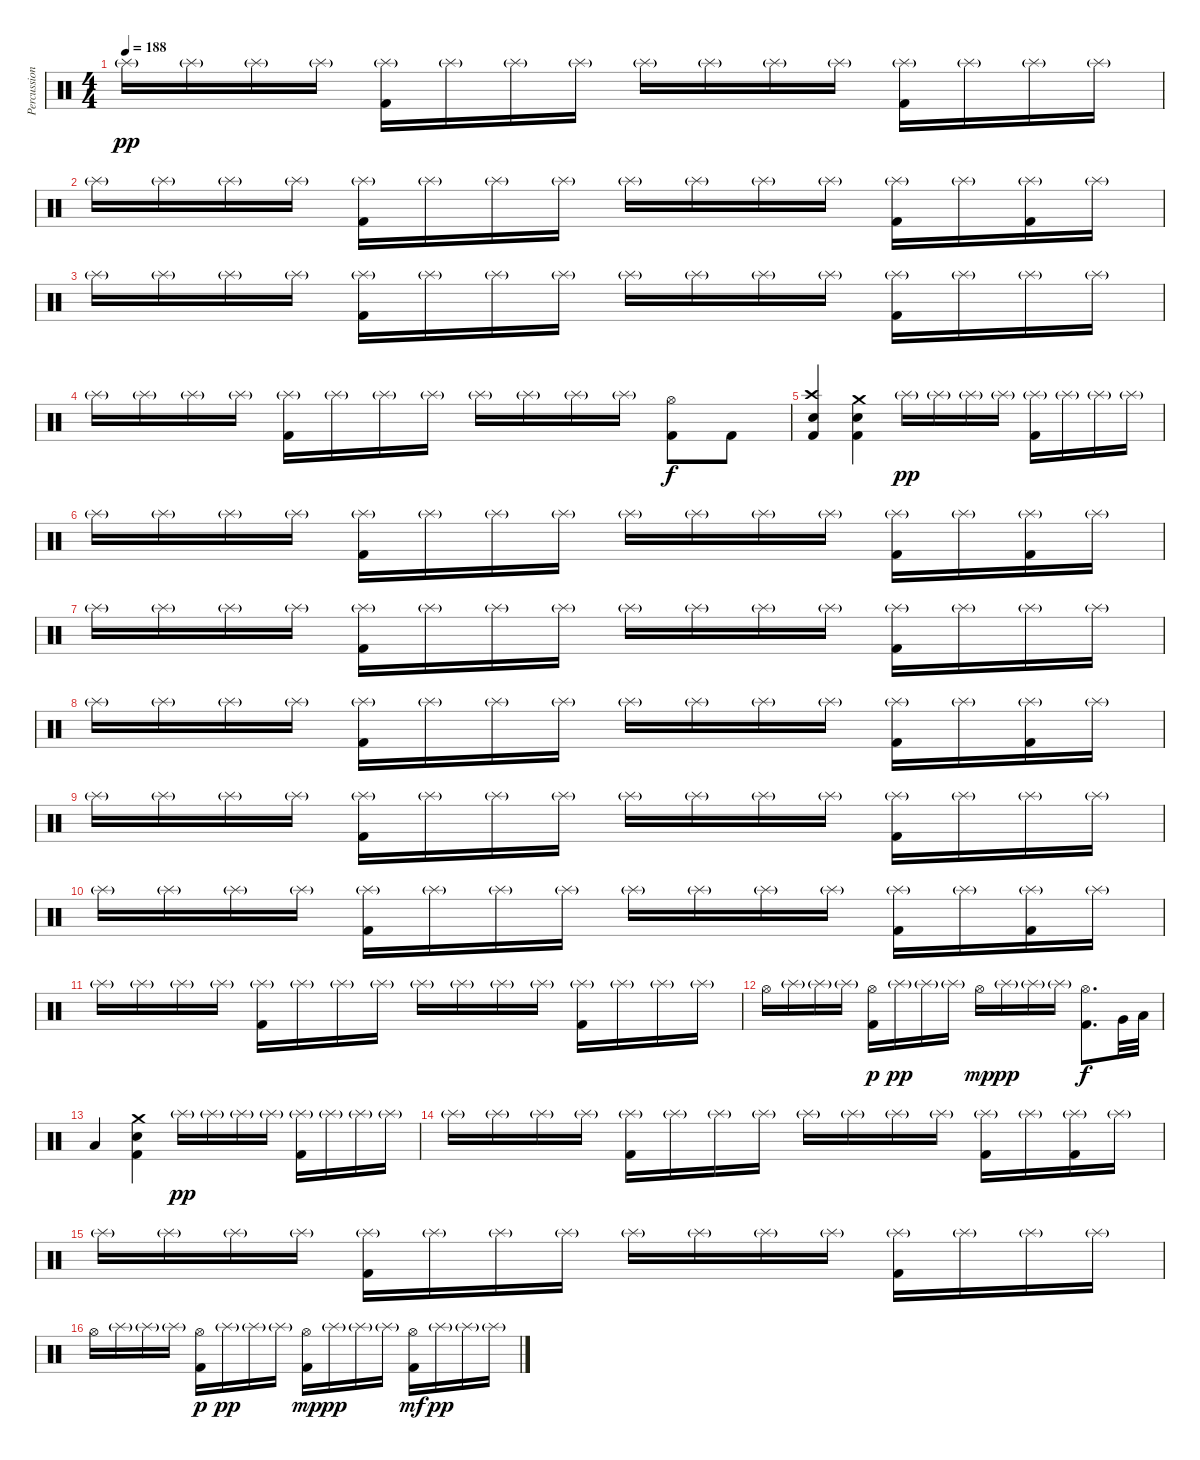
\track ("Percussion" "Percussion") {instrument percussion}
\staff {score}
\articulation defaults
\ts (4 4)
\tempo 188
\clef neutral
\ks c "Splash (hit)"{g}.16{dy pp} "Splash (hit)"{g}.16 "Splash (hit)"{g}.16 "Splash (hit)"{g}.16
("Splash (hit)"{g} "Kick (hit) 2").16 "Splash (hit)"{g}.16 "Splash (hit)"{g}.16 "Splash (hit)"{g}.16 "Splash (hit)"{g}.16 "Splash (hit)"{g}.16 "Splash (hit)"{g}.16 "Splash (hit)"{g}.16 ("Splash (hit)"{g} "Kick (hit) 2").16 "Splash (hit)"{g}.16 "Splash (hit)"{g}.16 "Splash (hit)"{g}.16 |
"Splash (hit)"{g}.16 "Splash (hit)"{g}.16 "Splash (hit)"{g}.16 "Splash (hit)"{g}.16 ("Splash (hit)"{g} "Kick (hit) 2").16 "Splash (hit)"{g}.16 "Splash (hit)"{g}.16 "Splash (hit)"{g}.16 "Splash (hit)"{g}.16 "Splash (hit)"{g}.16 "Splash (hit)"{g}.16 "Splash (hit)"{g}.16 ("Splash (hit)"{g} "Kick (hit) 2").16 "Splash (hit)"{g}.16 ("Splash (hit)"{g} "Kick (hit) 2").16 "Splash (hit)"{g}.16 |
"Splash (hit)"{g}.16 "Splash (hit)"{g}.16 "Splash (hit)"{g}.16 "Splash (hit)"{g}.16 ("Splash (hit)"{g} "Kick (hit) 2").16 "Splash (hit)"{g}.16 "Splash (hit)"{g}.16 "Splash (hit)"{g}.16 "Splash (hit)"{g}.16 "Splash (hit)"{g}.16 "Splash (hit)"{g}.16 "Splash (hit)"{g}.16 ("Splash (hit)"{g} "Kick (hit) 2").16 "Splash (hit)"{g}.16 "Splash (hit)"{g}.16 "Splash (hit)"{g}.16 |
"Splash (hit)"{g}.16 "Splash (hit)"{g}.16 "Splash (hit)"{g}.16 "Splash (hit)"{g}.16 ("Splash (hit)"{g} "Kick (hit) 2").16 "Splash (hit)"{g}.16 "Splash (hit)"{g}.16 "Splash (hit)"{g}.16 "Splash (hit)"{g}.16 "Splash (hit)"{g}.16 "Splash (hit)"{g}.16 "Splash (hit)"{g}.16 ("Hi-Hat (open)" "Kick (hit) 2").8{dy f} "Kick (hit) 2".8 |
("Crash high (hit)" "Electric Snare (hit)" "Kick (hit) 2").4 ("Crash medium (hit)" "Electric Snare (hit)" "Kick (hit) 2").4 "Splash (hit)"{g}.16{dy pp} "Splash (hit)"{g}.16 "Splash (hit)"{g}.16 "Splash (hit)"{g}.16 ("Splash (hit)"{g} "Kick (hit) 2").16 "Splash (hit)"{g}.16 "Splash (hit)"{g}.16 "Splash (hit)"{g}.16 |
"Splash (hit)"{g}.16 "Splash (hit)"{g}.16 "Splash (hit)"{g}.16 "Splash (hit)"{g}.16 ("Splash (hit)"{g} "Kick (hit) 2").16 "Splash (hit)"{g}.16 "Splash (hit)"{g}.16 "Splash (hit)"{g}.16 "Splash (hit)"{g}.16 "Splash (hit)"{g}.16 "Splash (hit)"{g}.16 "Splash (hit)"{g}.16 ("Splash (hit)"{g} "Kick (hit) 2").16 "Splash (hit)"{g}.16 ("Splash (hit)"{g} "Kick (hit) 2").16 "Splash (hit)"{g}.16 |
"Splash (hit)"{g}.16 "Splash (hit)"{g}.16 "Splash (hit)"{g}.16 "Splash (hit)"{g}.16 ("Splash (hit)"{g} "Kick (hit) 2").16 "Splash (hit)"{g}.16 "Splash (hit)"{g}.16 "Splash (hit)"{g}.16 "Splash (hit)"{g}.16 "Splash (hit)"{g}.16 "Splash (hit)"{g}.16 "Splash (hit)"{g}.16 ("Splash (hit)"{g} "Kick (hit) 2").16 "Splash (hit)"{g}.16 "Splash (hit)"{g}.16 "Splash (hit)"{g}.16 |
"Splash (hit)"{g}.16 "Splash (hit)"{g}.16 "Splash (hit)"{g}.16 "Splash (hit)"{g}.16 ("Splash (hit)"{g} "Kick (hit) 2").16 "Splash (hit)"{g}.16 "Splash (hit)"{g}.16 "Splash (hit)"{g}.16 "Splash (hit)"{g}.16 "Splash (hit)"{g}.16 "Splash (hit)"{g}.16 "Splash (hit)"{g}.16 ("Splash (hit)"{g} "Kick (hit) 2").16 "Splash (hit)"{g}.16 ("Splash (hit)"{g} "Kick (hit) 2").16 "Splash (hit)"{g}.16 |
"Splash (hit)"{g}.16 "Splash (hit)"{g}.16 "Splash (hit)"{g}.16 "Splash (hit)"{g}.16 ("Splash (hit)"{g} "Kick (hit) 2").16 "Splash (hit)"{g}.16 "Splash (hit)"{g}.16 "Splash (hit)"{g}.16 "Splash (hit)"{g}.16 "Splash (hit)"{g}.16 "Splash (hit)"{g}.16 "Splash (hit)"{g}.16 ("Splash (hit)"{g} "Kick (hit) 2").16 "Splash (hit)"{g}.16 "Splash (hit)"{g}.16 "Splash (hit)"{g}.16 |
"Splash (hit)"{g}.16 "Splash (hit)"{g}.16 "Splash (hit)"{g}.16 "Splash (hit)"{g}.16 ("Splash (hit)"{g} "Kick (hit) 2").16 "Splash (hit)"{g}.16 "Splash (hit)"{g}.16 "Splash (hit)"{g}.16 "Splash (hit)"{g}.16 "Splash (hit)"{g}.16 "Splash (hit)"{g}.16 "Splash (hit)"{g}.16 ("Splash (hit)"{g} "Kick (hit) 2").16 "Splash (hit)"{g}.16 ("Splash (hit)"{g} "Kick (hit) 2").16 "Splash (hit)"{g}.16 |
"Splash (hit)"{g}.16 "Splash (hit)"{g}.16 "Splash (hit)"{g}.16 "Splash (hit)"{g}.16 ("Splash (hit)"{g} "Kick (hit) 2").16 "Splash (hit)"{g}.16 "Splash (hit)"{g}.16 "Splash (hit)"{g}.16 "Splash (hit)"{g}.16 "Splash (hit)"{g}.16 "Splash (hit)"{g}.16 "Splash (hit)"{g}.16 ("Splash (hit)"{g} "Kick (hit) 2").16 "Splash (hit)"{g}.16 "Splash (hit)"{g}.16 "Splash (hit)"{g}.16 |
"Hi-Hat (open)".16 "Splash (hit)"{g}.16 "Splash (hit)"{g}.16 "Splash (hit)"{g}.16 ("Hi-Hat (open)" "Kick (hit) 2").16{dy p} "Splash (hit)"{g}.16{dy pp} "Splash (hit)"{g}.16 "Splash (hit)"{g}.16 "Hi-Hat (open)".16{dy mp} "Splash (hit)"{g}.16{dy pp} "Splash (hit)"{g}.16 "Splash (hit)"{g}.16 ("Hi-Hat (open)" "Kick (hit) 2").8{d dy f} "Very Low Tom (hit)".32 "Low Floor Tom (hit)".32 |
"Low Floor Tom (hit)".4 ("Crash medium (hit)" "Electric Snare (hit)" "Kick (hit) 2").4 "Splash (hit)"{g}.16{dy pp} "Splash (hit)"{g}.16 "Splash (hit)"{g}.16 "Splash (hit)"{g}.16 ("Splash (hit)"{g} "Kick (hit) 2").16 "Splash (hit)"{g}.16 "Splash (hit)"{g}.16 "Splash (hit)"{g}.16 |
"Splash (hit)"{g}.16 "Splash (hit)"{g}.16 "Splash (hit)"{g}.16 "Splash (hit)"{g}.16 ("Splash (hit)"{g} "Kick (hit) 2").16 "Splash (hit)"{g}.16 "Splash (hit)"{g}.16 "Splash (hit)"{g}.16 "Splash (hit)"{g}.16 "Splash (hit)"{g}.16 "Splash (hit)"{g}.16 "Splash (hit)"{g}.16 ("Splash (hit)"{g} "Kick (hit) 2").16 "Splash (hit)"{g}.16 ("Splash (hit)"{g} "Kick (hit) 2").16 "Splash (hit)"{g}.16 |
"Splash (hit)"{g}.16 "Splash (hit)"{g}.16 "Splash (hit)"{g}.16 "Splash (hit)"{g}.16 ("Splash (hit)"{g} "Kick (hit) 2").16 "Splash (hit)"{g}.16 "Splash (hit)"{g}.16 "Splash (hit)"{g}.16 "Splash (hit)"{g}.16 "Splash (hit)"{g}.16 "Splash (hit)"{g}.16 "Splash (hit)"{g}.16 ("Splash (hit)"{g} "Kick (hit) 2").16 "Splash (hit)"{g}.16 "Splash (hit)"{g}.16 "Splash (hit)"{g}.16 |
"Hi-Hat (open)".16 "Splash (hit)"{g}.16 "Splash (hit)"{g}.16 "Splash (hit)"{g}.16 ("Hi-Hat (open)" "Kick (hit) 2").16{dy p} "Splash (hit)"{g}.16{dy pp} "Splash (hit)"{g}.16 "Splash (hit)"{g}.16 ("Hi-Hat (open)" "Kick (hit) 2").16{dy mp} "Splash (hit)"{g}.16{dy pp} "Splash (hit)"{g}.16 "Splash (hit)"{g}.16 ("Hi-Hat (open)" "Kick (hit) 2").16{dy mf} "Splash (hit)"{g}.16{dy pp} "Splash (hit)"{g}.16 "Splash (hit)"{g}.16
